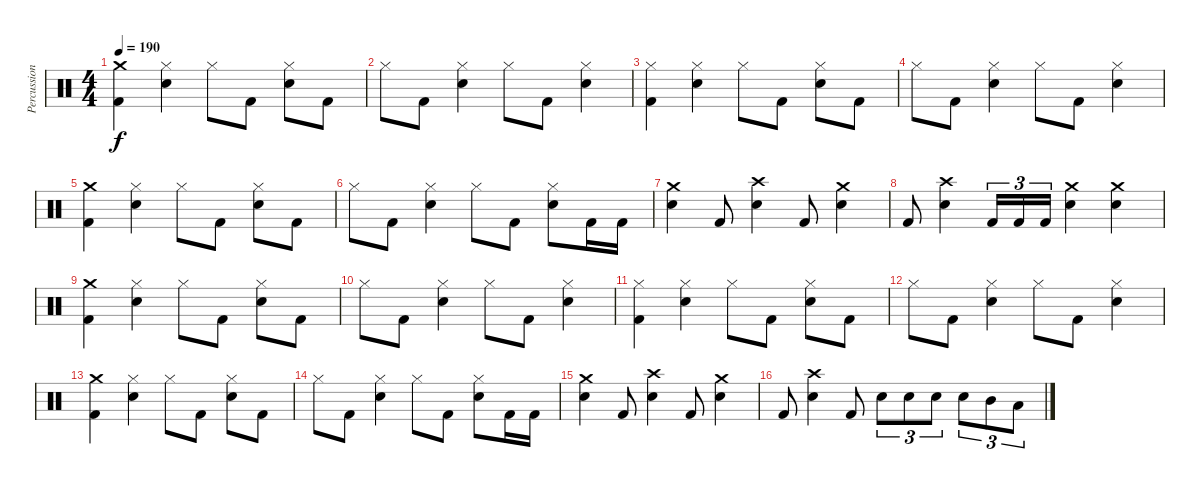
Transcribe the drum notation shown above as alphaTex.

\track ("Percussion" "Percussion") {instrument percussion}
\staff {score}
\articulation defaults
\ts (4 4)
\tempo 190
\clef neutral
\ks c
("Crash medium (hit)" "Kick (hit) 2").4{dy f} ("Hi-Hat (closed)" "Snare (hit) 2").4 "Hi-Hat (closed)".8 "Kick (hit) 2".8 ("Hi-Hat (closed)" "Snare (hit) 2").8 "Kick (hit) 2".8 |
"Hi-Hat (closed)".8 "Kick (hit) 2".8 ("Hi-Hat (closed)" "Snare (hit) 2").4 "Hi-Hat (closed)".8 "Kick (hit) 2".8 ("Hi-Hat (closed)" "Snare (hit) 2").4 |
("Hi-Hat (closed)" "Kick (hit) 2").4 ("Hi-Hat (closed)" "Snare (hit) 2").4 "Hi-Hat (closed)".8 "Kick (hit) 2".8 ("Hi-Hat (closed)" "Snare (hit) 2").8 "Kick (hit) 2".8 |
"Hi-Hat (closed)".8 "Kick (hit) 2".8 ("Hi-Hat (closed)" "Snare (hit) 2").4 "Hi-Hat (closed)".8 "Kick (hit) 2".8 ("Hi-Hat (closed)" "Snare (hit) 2").4 |
("Crash medium (hit)" "Kick (hit) 2").4 ("Hi-Hat (closed)" "Snare (hit) 2").4 "Hi-Hat (closed)".8 "Kick (hit) 2".8 ("Hi-Hat (closed)" "Snare (hit) 2").8 "Kick (hit) 2".8 |
"Hi-Hat (closed)".8 "Kick (hit) 2".8 ("Hi-Hat (closed)" "Snare (hit) 2").4 "Hi-Hat (closed)".8 "Kick (hit) 2".8 ("Hi-Hat (closed)" "Snare (hit) 2").8 "Kick (hit) 2".16 "Kick (hit) 2".16 |
("Crash medium (hit)" "Snare (hit) 2").4 "Kick (hit) 2".8 ("Crash high (hit)" "Snare (hit) 2").4 "Kick (hit) 2".8 ("Crash medium (hit)" "Snare (hit) 2").4 |
"Kick (hit) 2".8 ("Crash high (hit)" "Snare (hit) 2").4 "Kick (hit) 2".16{tu (3 2)} "Kick (hit) 2".16{tu (3 2)} "Kick (hit) 2".16{tu (3 2)} ("Crash medium (hit)" "Snare (hit) 2").4 ("Crash medium (hit)" "Snare (hit) 2").4 |
("Crash medium (hit)" "Kick (hit) 2").4 ("Hi-Hat (closed)" "Snare (hit) 2").4 "Hi-Hat (closed)".8 "Kick (hit) 2".8 ("Hi-Hat (closed)" "Snare (hit) 2").8 "Kick (hit) 2".8 |
"Hi-Hat (closed)".8 "Kick (hit) 2".8 ("Hi-Hat (closed)" "Snare (hit) 2").4 "Hi-Hat (closed)".8 "Kick (hit) 2".8 ("Hi-Hat (closed)" "Snare (hit) 2").4 |
("Hi-Hat (closed)" "Kick (hit) 2").4 ("Hi-Hat (closed)" "Snare (hit) 2").4 "Hi-Hat (closed)".8 "Kick (hit) 2".8 ("Hi-Hat (closed)" "Snare (hit) 2").8 "Kick (hit) 2".8 |
"Hi-Hat (closed)".8 "Kick (hit) 2".8 ("Hi-Hat (closed)" "Snare (hit) 2").4 "Hi-Hat (closed)".8 "Kick (hit) 2".8 ("Hi-Hat (closed)" "Snare (hit) 2").4 |
("Crash medium (hit)" "Kick (hit) 2").4 ("Hi-Hat (closed)" "Snare (hit) 2").4 "Hi-Hat (closed)".8 "Kick (hit) 2".8 ("Hi-Hat (closed)" "Snare (hit) 2").8 "Kick (hit) 2".8 |
"Hi-Hat (closed)".8 "Kick (hit) 2".8 ("Hi-Hat (closed)" "Snare (hit) 2").4 "Hi-Hat (closed)".8 "Kick (hit) 2".8 ("Hi-Hat (closed)" "Snare (hit) 2").8 "Kick (hit) 2".16 "Kick (hit) 2".16 |
("Crash medium (hit)" "Snare (hit) 2").4 "Kick (hit) 2".8 ("Crash high (hit)" "Snare (hit) 2").4 "Kick (hit) 2".8 ("Crash medium (hit)" "Snare (hit) 2").4 |
"Kick (hit) 2".8 ("Crash high (hit)" "Snare (hit) 2").4 "Kick (hit) 2".8 "Snare (hit) 2".8{tu (3 2)} "Snare (hit) 2".8{tu (3 2)} "Snare (hit) 2".8{tu (3 2)} "Snare (hit) 2".8{tu (3 2)} "Mid Tom (hit)".8{tu (3 2)} "Low Tom (hit)".8{tu (3 2)}
